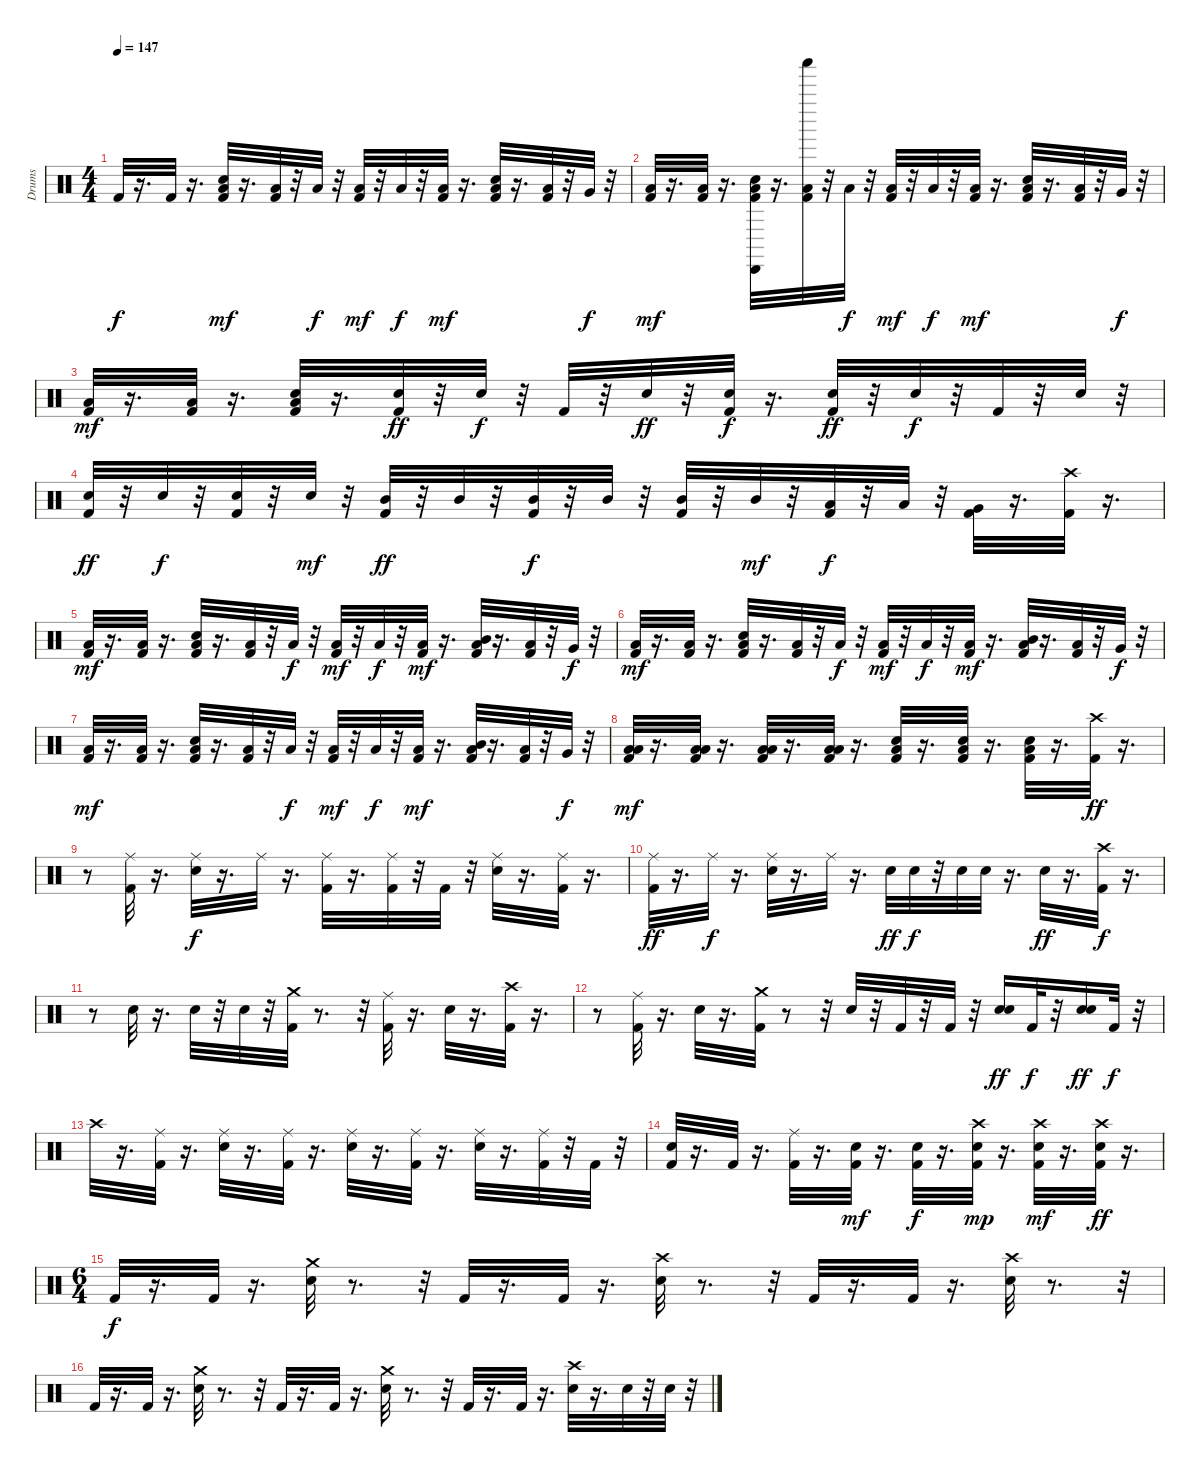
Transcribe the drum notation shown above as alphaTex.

\track ("Drums" "Drums") {instrument percussion}
\staff {score}
\articulation defaults
\ts (4 4)
\tempo 147
\clef neutral
\ks c "Kick (hit) 2".32{dy f}
r.16{d} "Kick (hit) 2".32 r.16{d} ("Snare (hit) 2" "Low Floor Tom (hit)" "Kick (hit) 2").32{dy mf} r.16{d} ("Low Floor Tom (hit)" "Kick (hit) 2").32 r.32 "Low Tom (hit)".32{dy f} r.32 ("Kick (hit) 2" "Low Floor Tom (hit)").32{dy mf} r.32 "Low Tom (hit)".32{dy f} r.32 ("Kick (hit) 2" "Low Floor Tom (hit)").32{dy mf} r.16{d} ("Snare (hit) 2" "Low Floor Tom (hit)" "Kick (hit) 2").32 r.16{d} ("Kick (hit) 2" "Low Floor Tom (hit)").32 r.32 "Very Low Tom (hit)".32{dy f} r.32 |
("Low Floor Tom (hit)" "Kick (hit) 2").32{dy mf} r.16{d} ("Low Floor Tom (hit)" "Kick (hit) 2").32 r.16{d} ("Cabasa (hit)" "Snare (hit) 2" "Low Floor Tom (hit)" "Kick (hit) 2").32 r.16{d} ("Shaker (hit)" "Low Floor Tom (hit)" "Kick (hit) 2").32 r.32 "Low Tom (hit)".32{dy f} r.32 ("Kick (hit) 2" "Low Floor Tom (hit)").32{dy mf} r.32 "Low Tom (hit)".32{dy f} r.32 ("Kick (hit) 2" "Low Floor Tom (hit)").32{dy mf} r.16{d} ("Low Floor Tom (hit)" "Kick (hit) 2" "Snare (hit) 2").32 r.16{d} ("Kick (hit) 2" "Low Floor Tom (hit)").32 r.32 "Very Low Tom (hit)".32{dy f} r.32 |
("Low Floor Tom (hit)" "Kick (hit) 2").32{dy mf} r.16{d} ("Low Floor Tom (hit)" "Kick (hit) 2").32 r.16{d} ("Low Floor Tom (hit)" "Kick (hit) 2" "Snare (hit) 2").32 r.16{d} ("Snare (hit) 2" "Kick (hit) 2").32{dy ff} r.32 "Snare (hit) 2".32{dy f} r.32 "Kick (hit) 2".32 r.32 "Snare (hit) 2".32{dy ff} r.32 ("Kick (hit) 2" "Snare (hit) 2").32{dy f} r.16{d} ("Snare (hit) 2" "Kick (hit) 2").32{dy ff} r.32 "Snare (hit) 2".32{dy f} r.32 "Kick (hit) 2".32 r.32 "Snare (hit) 2".32 r.32 |
("Snare (hit) 2" "Kick (hit) 2").32{dy ff} r.32 "Snare (hit) 2".32{dy f} r.32 ("Snare (hit) 2" "Kick (hit) 2").32 r.32 "Snare (hit) 2".32{dy mf} r.32 ("Mid Tom (hit)" "Kick (hit) 2").32{dy ff} r.32 "Mid Tom (hit)".32 r.32 ("Mid Tom (hit)" "Kick (hit) 2").32{dy f} r.32 "Mid Tom (hit)".32 r.32 ("Mid Tom (hit)" "Kick (hit) 2").32 r.32 "Mid Tom (hit)".32{dy mf} r.32 ("Low Tom (hit)" "Kick (hit) 2").32{dy f} r.32 "Low Tom (hit)".32 r.32 ("Very Low Tom (hit)" "Kick (hit) 2").32 r.16{d} ("Crash high (hit)" "Kick (hit) 2").32 r.16{d} |
("Low Floor Tom (hit)" "Kick (hit) 2").32{dy mf} r.16{d} ("Low Floor Tom (hit)" "Kick (hit) 2").32 r.16{d} ("Snare (hit) 2" "Low Floor Tom (hit)" "Kick (hit) 2").32 r.16{d} ("Low Floor Tom (hit)" "Kick (hit) 2").32 r.32 "Low Tom (hit)".32{dy f} r.32 ("Kick (hit) 2" "Low Floor Tom (hit)").32{dy mf} r.32 "Low Tom (hit)".32{dy f} r.32 ("Kick (hit) 2" "Low Floor Tom (hit)").32{dy mf} r.16{d} ("Mid Tom (hit)" "Low Floor Tom (hit)" "Kick (hit) 2").32 r.16{d} ("Kick (hit) 2" "Low Floor Tom (hit)").32 r.32 "Very Low Tom (hit)".32{dy f} r.32 |
("Low Floor Tom (hit)" "Kick (hit) 2").32{dy mf} r.16{d} ("Low Floor Tom (hit)" "Kick (hit) 2").32 r.16{d} ("Snare (hit) 2" "Low Floor Tom (hit)" "Kick (hit) 2").32 r.16{d} ("Low Floor Tom (hit)" "Kick (hit) 2").32 r.32 "Low Tom (hit)".32{dy f} r.32 ("Kick (hit) 2" "Low Floor Tom (hit)").32{dy mf} r.32 "Low Tom (hit)".32{dy f} r.32 ("Kick (hit) 2" "Low Floor Tom (hit)").32{dy mf} r.16{d} ("Mid Tom (hit)" "Low Floor Tom (hit)" "Kick (hit) 2").32 r.16{d} ("Kick (hit) 2" "Low Floor Tom (hit)").32 r.32 "Very Low Tom (hit)".32{dy f} r.32 |
("Low Floor Tom (hit)" "Kick (hit) 2").32{dy mf} r.16{d} ("Low Floor Tom (hit)" "Kick (hit) 2").32 r.16{d} ("Snare (hit) 2" "Low Floor Tom (hit)" "Kick (hit) 2").32 r.16{d} ("Low Floor Tom (hit)" "Kick (hit) 2").32 r.32 "Low Tom (hit)".32{dy f} r.32 ("Kick (hit) 2" "Low Floor Tom (hit)").32{dy mf} r.32 "Low Tom (hit)".32{dy f} r.32 ("Kick (hit) 2" "Low Floor Tom (hit)").32{dy mf} r.16{d} ("Mid Tom (hit)" "Low Floor Tom (hit)" "Kick (hit) 2").32 r.16{d} ("Kick (hit) 2" "Low Floor Tom (hit)").32 r.32 "Very Low Tom (hit)".32{dy f} r.32 |
("Low Floor Tom (hit)" "Kick (hit) 2" "Low Tom (hit)").32{dy mf} r.16{d} ("Low Tom (hit)" "Low Floor Tom (hit)" "Kick (hit) 2").32 r.16{d} ("Low Tom (hit)" "Low Floor Tom (hit)" "Kick (hit) 2").32 r.16{d} ("Low Tom (hit)" "Low Floor Tom (hit)" "Kick (hit) 2").32 r.16{d} ("Snare (hit) 2" "Low Floor Tom (hit)" "Kick (hit) 2").32 r.16{d} ("Snare (hit) 2" "Low Floor Tom (hit)" "Kick (hit) 2").32 r.16{d} ("Snare (hit) 2" "Low Floor Tom (hit)" "Kick (hit) 2").32 r.16{d} ("Crash high (hit)" "Kick (hit) 2").32{dy ff} r.16{d} |
r.8 ("Ride (middle)" "Kick (hit) 2").32 r.16{d} ("Snare (hit) 2" "Ride (middle)").32{dy f} r.16{d} "Ride (middle)".32 r.16{d} ("Kick (hit) 2" "Ride (middle)").32 r.16{d} ("Kick (hit) 2" "Ride (middle)").32 r.32 "Kick (hit) 2".32 r.32 ("Ride (middle)" "Snare (hit) 2").32 r.16{d} ("Ride (middle)" "Kick (hit) 2").32 r.16{d} |
("Kick (hit) 2" "Ride (middle)").32{dy ff} r.16{d} "Ride (middle)".32{dy f} r.16{d} ("Snare (hit) 2" "Ride (middle)").32 r.16{d} "Ride (middle)".32 r.16{d} "Snare (hit) 2".32{dy ff} "Snare (hit) 2".32{dy f} r.32 "Snare (hit) 2".32 "Snare (hit) 2".32 r.16{d} "Snare (hit) 2".32{dy ff} r.16{d} ("Crash high (hit)" "Kick (hit) 2").32{dy f} r.16{d} |
r.8 "Snare (hit) 2".32 r.16{d} "Snare (hit) 2".32 r.32 "Snare (hit) 2".32 r.32 ("Crash medium (hit)" "Kick (hit) 2").32 r.8{d} r.32 ("Kick (hit) 2" "Ride (middle)").32 r.16{d} "Snare (hit) 2".32 r.16{d} ("Kick (hit) 2" "Crash high (hit)").32 r.16{d} |
r.8 ("Kick (hit) 2" "Ride (middle)").32 r.16{d} "Snare (hit) 2".32 r.16{d} ("Kick (hit) 2" "Crash medium (hit)").32 r.8 r.32 "Snare (hit) 2".32 r.32 "Kick (hit) 2".32 r.32 "Kick (hit) 2".32 r.32 ("Snare (hit) 2" "Snare (hit) 2").16{dy ff} "Kick (hit) 2".32{dy f} r.32 ("Snare (hit) 2" "Snare (hit) 2").16{dy ff} "Kick (hit) 2".32{dy f} r.32 |
"Crash high (hit)".32 r.16{d} ("Ride (middle)" "Kick (hit) 2").32 r.16{d} ("Ride (middle)" "Snare (hit) 2").32 r.16{d} ("Ride (middle)" "Kick (hit) 2").32 r.16{d} ("Ride (middle)" "Snare (hit) 2").32 r.16{d} ("Ride (middle)" "Kick (hit) 2").32 r.16{d} ("Ride (middle)" "Snare (hit) 2").32 r.16{d} ("Ride (middle)" "Kick (hit) 2").32 r.32 "Kick (hit) 2".32 r.32 |
("Kick (hit) 2" "Snare (hit) 2").32 r.16{d} "Kick (hit) 2".32 r.16{d} ("Ride (middle)" "Kick (hit) 2").32 r.16{d} ("Snare (hit) 2" "Kick (hit) 2").32{dy mf} r.16{d} ("Snare (hit) 2" "Kick (hit) 2").32{dy f} r.16{d} ("Crash high (hit)" "Snare (hit) 2" "Kick (hit) 2").32{dy mp} r.16{d} ("Crash high (hit)" "Snare (hit) 2" "Kick (hit) 2").32{dy mf} r.16{d} ("Snare (hit) 2" "Kick (hit) 2" "Crash high (hit)").32{dy ff} r.16{d} |
\ts (6 4)
"Kick (hit) 2".32{dy f} r.16{d} "Kick (hit) 2".32 r.16{d} ("Crash medium (hit)" "Snare (hit) 2").32 r.8{d} r.32 "Kick (hit) 2".32 r.16{d} "Kick (hit) 2".32 r.16{d} ("Snare (hit) 2" "Crash high (hit)").32 r.8{d} r.32 "Kick (hit) 2".32 r.16{d} "Kick (hit) 2".32 r.16{d} ("Crash high (hit)" "Snare (hit) 2").32 r.8{d} r.32 |
"Kick (hit) 2".32 r.16{d} "Kick (hit) 2".32 r.16{d} ("Crash medium (hit)" "Snare (hit) 2").32 r.8{d} r.32 "Kick (hit) 2".32 r.16{d} "Kick (hit) 2".32 r.16{d} ("Crash medium (hit)" "Snare (hit) 2").32 r.8{d} r.32 "Kick (hit) 2".32 r.16{d} "Kick (hit) 2".32 r.16{d} ("Snare (hit) 2" "Crash high (hit)").32 r.16{d} "Snare (hit) 2".32 r.32 "Snare (hit) 2".32 r.32
